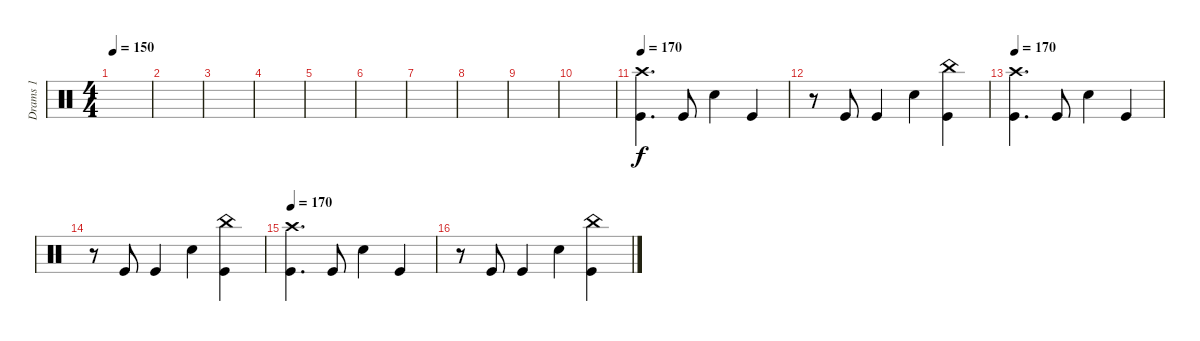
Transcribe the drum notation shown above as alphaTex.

\track ("Drams 1" "Drams 1") {instrument percussion}
\staff {score}
\articulation defaults
\ts (4 4)
\tempo 150
\clef neutral
\ks c
|
|
|
|
|
|
|
|
|
|
\tempo 170
("Crash high (hit)" "Kick (hit)").4{d} "Kick (hit)".8 "Snare (hit) 2".4 "Kick (hit)".4 |
r.8 "Kick (hit)".8 "Kick (hit)".4 "Snare (hit) 2".4 ("Kick (hit)" "China (hit)").4 |
\tempo 170
("Crash high (hit)" "Kick (hit)").4{d} "Kick (hit)".8 "Snare (hit) 2".4 "Kick (hit)".4 |
r.8 "Kick (hit)".8 "Kick (hit)".4 "Snare (hit) 2".4 ("Kick (hit)" "China (hit)").4 |
\tempo 170
("Crash high (hit)" "Kick (hit)").4{d} "Kick (hit)".8 "Snare (hit) 2".4 "Kick (hit)".4 |
r.8 "Kick (hit)".8 "Kick (hit)".4 "Snare (hit) 2".4 ("Kick (hit)" "China (hit)").4
